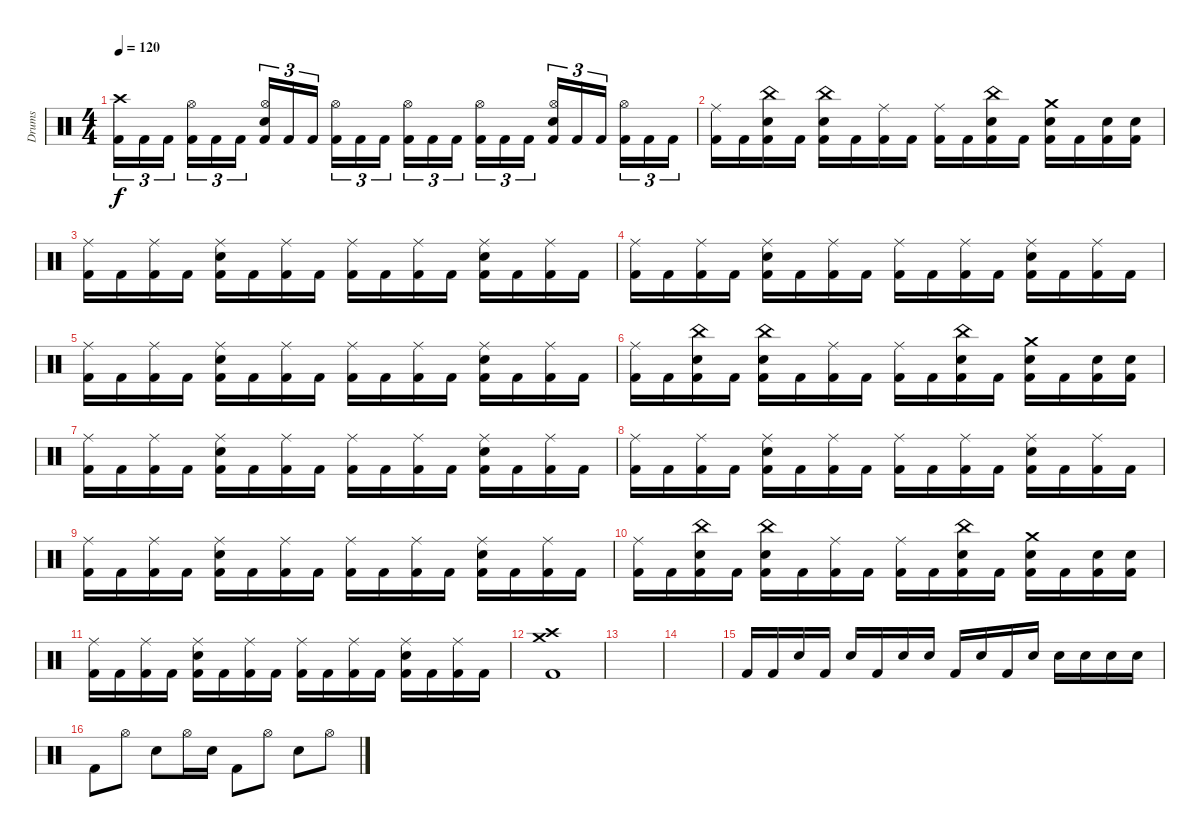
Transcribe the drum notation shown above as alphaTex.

\track ("Drums" "Drums") {instrument percussion}
\staff {score}
\articulation defaults
\ts (4 4)
\tempo 120
\clef neutral
\ks c
("Crash high (hit)" "Kick (hit) 2").16{tu (3 2) dy f} "Kick (hit) 2".16{tu (3 2)} "Kick (hit) 2".16{tu (3 2)} ("Hi-Hat (open)" "Kick (hit) 2").16{tu (3 2)} "Kick (hit) 2".16{tu (3 2)} "Kick (hit) 2".16{tu (3 2)} ("Hi-Hat (open)" "Electric Snare (hit)" "Kick (hit) 2").16{tu (3 2)} "Kick (hit) 2".16{tu (3 2)} "Kick (hit) 2".16{tu (3 2)} ("Hi-Hat (open)" "Kick (hit) 2").16{tu (3 2)} "Kick (hit) 2".16{tu (3 2)} "Kick (hit) 2".16{tu (3 2)} ("Hi-Hat (open)" "Kick (hit) 2").16{tu (3 2)} "Kick (hit) 2".16{tu (3 2)} "Kick (hit) 2".16{tu (3 2)} ("Hi-Hat (open)" "Kick (hit) 2").16{tu (3 2)} "Kick (hit) 2".16{tu (3 2)} "Kick (hit) 2".16{tu (3 2)} ("Hi-Hat (open)" "Electric Snare (hit)" "Kick (hit) 2").16{tu (3 2)} "Kick (hit) 2".16{tu (3 2)} "Kick (hit) 2".16{tu (3 2)} ("Hi-Hat (open)" "Kick (hit) 2").16{tu (3 2)} "Kick (hit) 2".16{tu (3 2)} "Kick (hit) 2".16{tu (3 2)} |
("Ride (middle)" "Kick (hit) 2").16 "Kick (hit) 2".16 ("China (hit)" "Electric Snare (hit)" "Kick (hit) 2").16 "Kick (hit) 2".16 ("China (hit)" "Electric Snare (hit)" "Kick (hit) 2").16 "Kick (hit) 2".16 ("Ride (middle)" "Kick (hit) 2").16 "Kick (hit) 2".16 ("Ride (middle)" "Kick (hit) 2").16 "Kick (hit) 2".16 ("China (hit)" "Electric Snare (hit)" "Kick (hit) 2").16 "Kick (hit) 2".16 ("Crash medium (hit)" "Electric Snare (hit)" "Kick (hit) 2").16 "Kick (hit) 2".16 ("Electric Snare (hit)" "Kick (hit) 2").16 ("Electric Snare (hit)" "Kick (hit) 2").16 |
("Ride (middle)" "Kick (hit) 2").16 "Kick (hit) 2".16 ("Ride (middle)" "Kick (hit) 2").16 "Kick (hit) 2".16 ("Ride (middle)" "Electric Snare (hit)" "Kick (hit) 2").16 "Kick (hit) 2".16 ("Ride (middle)" "Kick (hit) 2").16 "Kick (hit) 2".16 ("Ride (middle)" "Kick (hit) 2").16 "Kick (hit) 2".16 ("Ride (middle)" "Kick (hit) 2").16 "Kick (hit) 2".16 ("Ride (middle)" "Electric Snare (hit)" "Kick (hit) 2").16 "Kick (hit) 2".16 ("Ride (middle)" "Kick (hit) 2").16 "Kick (hit) 2".16 |
("Ride (middle)" "Kick (hit) 2").16 "Kick (hit) 2".16 ("Ride (middle)" "Kick (hit) 2").16 "Kick (hit) 2".16 ("Ride (middle)" "Electric Snare (hit)" "Kick (hit) 2").16 "Kick (hit) 2".16 ("Ride (middle)" "Kick (hit) 2").16 "Kick (hit) 2".16 ("Ride (middle)" "Kick (hit) 2").16 "Kick (hit) 2".16 ("Ride (middle)" "Kick (hit) 2").16 "Kick (hit) 2".16 ("Ride (middle)" "Electric Snare (hit)" "Kick (hit) 2").16 "Kick (hit) 2".16 ("Ride (middle)" "Kick (hit) 2").16 "Kick (hit) 2".16 |
("Ride (middle)" "Kick (hit) 2").16 "Kick (hit) 2".16 ("Ride (middle)" "Kick (hit) 2").16 "Kick (hit) 2".16 ("Ride (middle)" "Electric Snare (hit)" "Kick (hit) 2").16 "Kick (hit) 2".16 ("Ride (middle)" "Kick (hit) 2").16 "Kick (hit) 2".16 ("Ride (middle)" "Kick (hit) 2").16 "Kick (hit) 2".16 ("Ride (middle)" "Kick (hit) 2").16 "Kick (hit) 2".16 ("Ride (middle)" "Electric Snare (hit)" "Kick (hit) 2").16 "Kick (hit) 2".16 ("Ride (middle)" "Kick (hit) 2").16 "Kick (hit) 2".16 |
("Ride (middle)" "Kick (hit) 2").16 "Kick (hit) 2".16 ("China (hit)" "Electric Snare (hit)" "Kick (hit) 2").16 "Kick (hit) 2".16 ("China (hit)" "Electric Snare (hit)" "Kick (hit) 2").16 "Kick (hit) 2".16 ("Ride (middle)" "Kick (hit) 2").16 "Kick (hit) 2".16 ("Ride (middle)" "Kick (hit) 2").16 "Kick (hit) 2".16 ("China (hit)" "Electric Snare (hit)" "Kick (hit) 2").16 "Kick (hit) 2".16 ("Crash medium (hit)" "Electric Snare (hit)" "Kick (hit) 2").16 "Kick (hit) 2".16 ("Electric Snare (hit)" "Kick (hit) 2").16 ("Electric Snare (hit)" "Kick (hit) 2").16 |
("Ride (middle)" "Kick (hit) 2").16 "Kick (hit) 2".16 ("Ride (middle)" "Kick (hit) 2").16 "Kick (hit) 2".16 ("Ride (middle)" "Electric Snare (hit)" "Kick (hit) 2").16 "Kick (hit) 2".16 ("Ride (middle)" "Kick (hit) 2").16 "Kick (hit) 2".16 ("Ride (middle)" "Kick (hit) 2").16 "Kick (hit) 2".16 ("Ride (middle)" "Kick (hit) 2").16 "Kick (hit) 2".16 ("Ride (middle)" "Electric Snare (hit)" "Kick (hit) 2").16 "Kick (hit) 2".16 ("Ride (middle)" "Kick (hit) 2").16 "Kick (hit) 2".16 |
("Ride (middle)" "Kick (hit) 2").16 "Kick (hit) 2".16 ("Ride (middle)" "Kick (hit) 2").16 "Kick (hit) 2".16 ("Ride (middle)" "Electric Snare (hit)" "Kick (hit) 2").16 "Kick (hit) 2".16 ("Ride (middle)" "Kick (hit) 2").16 "Kick (hit) 2".16 ("Ride (middle)" "Kick (hit) 2").16 "Kick (hit) 2".16 ("Ride (middle)" "Kick (hit) 2").16 "Kick (hit) 2".16 ("Ride (middle)" "Electric Snare (hit)" "Kick (hit) 2").16 "Kick (hit) 2".16 ("Ride (middle)" "Kick (hit) 2").16 "Kick (hit) 2".16 |
("Ride (middle)" "Kick (hit) 2").16 "Kick (hit) 2".16 ("Ride (middle)" "Kick (hit) 2").16 "Kick (hit) 2".16 ("Ride (middle)" "Electric Snare (hit)" "Kick (hit) 2").16 "Kick (hit) 2".16 ("Ride (middle)" "Kick (hit) 2").16 "Kick (hit) 2".16 ("Ride (middle)" "Kick (hit) 2").16 "Kick (hit) 2".16 ("Ride (middle)" "Kick (hit) 2").16 "Kick (hit) 2".16 ("Ride (middle)" "Electric Snare (hit)" "Kick (hit) 2").16 "Kick (hit) 2".16 ("Ride (middle)" "Kick (hit) 2").16 "Kick (hit) 2".16 |
("Ride (middle)" "Kick (hit) 2").16 "Kick (hit) 2".16 ("China (hit)" "Electric Snare (hit)" "Kick (hit) 2").16 "Kick (hit) 2".16 ("China (hit)" "Electric Snare (hit)" "Kick (hit) 2").16 "Kick (hit) 2".16 ("Ride (middle)" "Kick (hit) 2").16 "Kick (hit) 2".16 ("Ride (middle)" "Kick (hit) 2").16 "Kick (hit) 2".16 ("China (hit)" "Electric Snare (hit)" "Kick (hit) 2").16 "Kick (hit) 2".16 ("Crash medium (hit)" "Electric Snare (hit)" "Kick (hit) 2").16 "Kick (hit) 2".16 ("Electric Snare (hit)" "Kick (hit) 2").16 ("Electric Snare (hit)" "Kick (hit) 2").16 |
("Ride (middle)" "Kick (hit) 2").16 "Kick (hit) 2".16 ("Ride (middle)" "Kick (hit) 2").16 "Kick (hit) 2".16 ("Ride (middle)" "Electric Snare (hit)" "Kick (hit) 2").16 "Kick (hit) 2".16 ("Ride (middle)" "Kick (hit) 2").16 "Kick (hit) 2".16 ("Ride (middle)" "Kick (hit) 2").16 "Kick (hit) 2".16 ("Ride (middle)" "Kick (hit) 2").16 "Kick (hit) 2".16 ("Ride (middle)" "Electric Snare (hit)" "Kick (hit) 2").16 "Kick (hit) 2".16 ("Ride (middle)" "Kick (hit) 2").16 "Kick (hit) 2".16 |
("Crash high (hit)" "Crash medium (hit)" "Kick (hit) 2").1 |
|
|
"Kick (hit) 2".16 "Kick (hit) 2".16 "Snare (hit) 2".16 "Kick (hit) 2".16 "Snare (hit) 2".16 "Kick (hit) 2".16 "Snare (hit) 2".16 "Snare (hit) 2".16 "Kick (hit) 2".16 "Snare (hit) 2".16 "Kick (hit) 2".16 "Snare (hit) 2".16 "Snare (hit) 2".16 "Snare (hit) 2".16 "Snare (hit) 2".16 "Snare (hit) 2".16 |
"Kick (hit) 2".8 "Hi-Hat (open)".8 "Snare (hit) 2".8 "Hi-Hat (open)".16 "Snare (hit) 2".16 "Kick (hit) 2".8 "Hi-Hat (open)".8 "Snare (hit) 2".8 "Hi-Hat (open)".8
